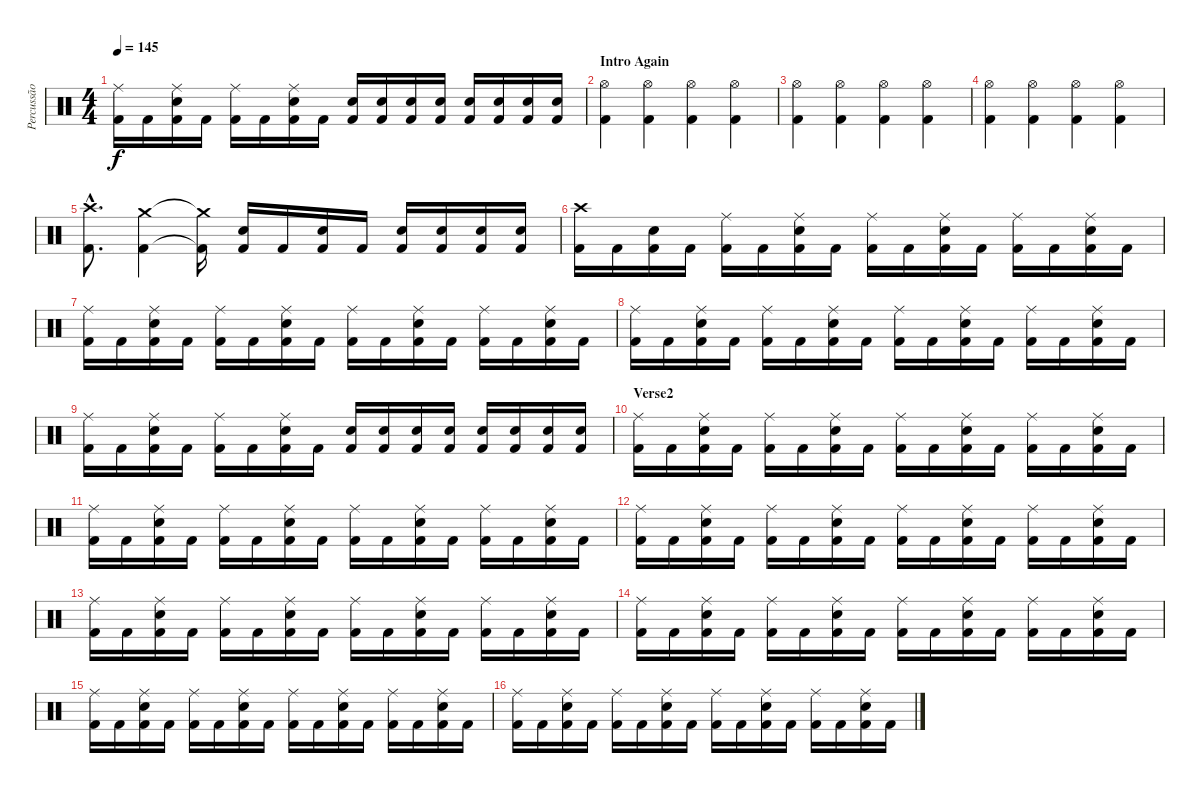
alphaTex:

\track ("Percussão" "Percussão") {instrument percussion}
\staff {score}
\articulation defaults
\ts (4 4)
\tempo 145
\clef neutral
\ks c
("Kick (hit) 2" "Ride (middle)").16{dy f} "Kick (hit) 2".16 ("Kick (hit) 2" "Snare (hit) 2" "Ride (middle)").16 "Kick (hit) 2".16 ("Kick (hit) 2" "Ride (middle)").16 "Kick (hit) 2".16 ("Kick (hit) 2" "Snare (hit) 2" "Ride (middle)").16 "Kick (hit) 2".16 ("Kick (hit) 2" "Snare (hit) 2").16 ("Kick (hit) 2" "Snare (hit) 2").16 ("Kick (hit) 2" "Snare (hit) 2").16 ("Kick (hit) 2" "Snare (hit) 2").16 ("Kick (hit) 2" "Snare (hit) 2").16 ("Kick (hit) 2" "Snare (hit) 2").16 ("Kick (hit) 2" "Snare (hit) 2").16 ("Kick (hit) 2" "Snare (hit) 2").16 |
\section ("" "Intro Again")
("Kick (hit) 2" "Hi-Hat (open)").4 ("Kick (hit) 2" "Hi-Hat (open)").4 ("Kick (hit) 2" "Hi-Hat (open)").4 ("Kick (hit) 2" "Hi-Hat (open)").4 |
("Kick (hit) 2" "Hi-Hat (open)").4 ("Kick (hit) 2" "Hi-Hat (open)").4 ("Kick (hit) 2" "Hi-Hat (open)").4 ("Kick (hit) 2" "Hi-Hat (open)").4 |
("Kick (hit) 2" "Hi-Hat (open)").4 ("Kick (hit) 2" "Hi-Hat (open)").4 ("Kick (hit) 2" "Hi-Hat (open)").4 ("Kick (hit) 2" "Hi-Hat (open)").4 |
("Kick (hit) 2"{hac} "Crash high (hit)"{hac}).8{d} ("Kick (hit) 2" "Crash medium (hit)").4 ("Kick (hit) 2"{t} "Crash medium (hit)"{t}).16 ("Kick (hit) 2" "Snare (hit) 2").16 "Kick (hit) 2".16 ("Kick (hit) 2" "Snare (hit) 2").16 "Kick (hit) 2".16 ("Kick (hit) 2" "Snare (hit) 2").16 ("Kick (hit) 2" "Snare (hit) 2").16 ("Kick (hit) 2" "Snare (hit) 2").16 ("Kick (hit) 2" "Snare (hit) 2").16 |
("Kick (hit) 2" "Crash high (hit)").16 "Kick (hit) 2".16 ("Kick (hit) 2" "Snare (hit) 2").16 "Kick (hit) 2".16 ("Kick (hit) 2" "Ride (middle)").16 "Kick (hit) 2".16 ("Kick (hit) 2" "Snare (hit) 2" "Ride (middle)").16 "Kick (hit) 2".16 ("Kick (hit) 2" "Ride (middle)").16 "Kick (hit) 2".16 ("Kick (hit) 2" "Snare (hit) 2" "Ride (middle)").16 "Kick (hit) 2".16 ("Kick (hit) 2" "Ride (middle)").16 "Kick (hit) 2".16 ("Kick (hit) 2" "Snare (hit) 2" "Ride (middle)").16 "Kick (hit) 2".16 |
("Kick (hit) 2" "Ride (middle)").16 "Kick (hit) 2".16 ("Kick (hit) 2" "Snare (hit) 2" "Ride (middle)").16 "Kick (hit) 2".16 ("Kick (hit) 2" "Ride (middle)").16 "Kick (hit) 2".16 ("Kick (hit) 2" "Snare (hit) 2" "Ride (middle)").16 "Kick (hit) 2".16 ("Kick (hit) 2" "Ride (middle)").16 "Kick (hit) 2".16 ("Kick (hit) 2" "Snare (hit) 2" "Ride (middle)").16 "Kick (hit) 2".16 ("Kick (hit) 2" "Ride (middle)").16 "Kick (hit) 2".16 ("Kick (hit) 2" "Snare (hit) 2" "Ride (middle)").16 "Kick (hit) 2".16 |
("Kick (hit) 2" "Ride (middle)").16 "Kick (hit) 2".16 ("Kick (hit) 2" "Snare (hit) 2" "Ride (middle)").16 "Kick (hit) 2".16 ("Kick (hit) 2" "Ride (middle)").16 "Kick (hit) 2".16 ("Kick (hit) 2" "Snare (hit) 2" "Ride (middle)").16 "Kick (hit) 2".16 ("Kick (hit) 2" "Ride (middle)").16 "Kick (hit) 2".16 ("Kick (hit) 2" "Snare (hit) 2" "Ride (middle)").16 "Kick (hit) 2".16 ("Kick (hit) 2" "Ride (middle)").16 "Kick (hit) 2".16 ("Kick (hit) 2" "Snare (hit) 2" "Ride (middle)").16 "Kick (hit) 2".16 |
("Kick (hit) 2" "Ride (middle)").16 "Kick (hit) 2".16 ("Kick (hit) 2" "Snare (hit) 2" "Ride (middle)").16 "Kick (hit) 2".16 ("Kick (hit) 2" "Ride (middle)").16 "Kick (hit) 2".16 ("Kick (hit) 2" "Snare (hit) 2" "Ride (middle)").16 "Kick (hit) 2".16 ("Kick (hit) 2" "Snare (hit) 2").16 ("Kick (hit) 2" "Snare (hit) 2").16 ("Kick (hit) 2" "Snare (hit) 2").16 ("Kick (hit) 2" "Snare (hit) 2").16 ("Kick (hit) 2" "Snare (hit) 2").16 ("Kick (hit) 2" "Snare (hit) 2").16 ("Kick (hit) 2" "Snare (hit) 2").16 ("Kick (hit) 2" "Snare (hit) 2").16 |
\section ("" "Verse2")
("Kick (hit) 2" "Ride (middle)").16 "Kick (hit) 2".16 ("Kick (hit) 2" "Snare (hit) 2" "Ride (middle)").16 "Kick (hit) 2".16 ("Kick (hit) 2" "Ride (middle)").16 "Kick (hit) 2".16 ("Kick (hit) 2" "Snare (hit) 2" "Ride (middle)").16 "Kick (hit) 2".16 ("Kick (hit) 2" "Ride (middle)").16 "Kick (hit) 2".16 ("Kick (hit) 2" "Snare (hit) 2" "Ride (middle)").16 "Kick (hit) 2".16 ("Kick (hit) 2" "Ride (middle)").16 "Kick (hit) 2".16 ("Kick (hit) 2" "Snare (hit) 2" "Ride (middle)").16 "Kick (hit) 2".16 |
("Kick (hit) 2" "Ride (middle)").16 "Kick (hit) 2".16 ("Kick (hit) 2" "Snare (hit) 2" "Ride (middle)").16 "Kick (hit) 2".16 ("Kick (hit) 2" "Ride (middle)").16 "Kick (hit) 2".16 ("Kick (hit) 2" "Snare (hit) 2" "Ride (middle)").16 "Kick (hit) 2".16 ("Kick (hit) 2" "Ride (middle)").16 "Kick (hit) 2".16 ("Kick (hit) 2" "Snare (hit) 2" "Ride (middle)").16 "Kick (hit) 2".16 ("Kick (hit) 2" "Ride (middle)").16 "Kick (hit) 2".16 ("Kick (hit) 2" "Snare (hit) 2" "Ride (middle)").16 "Kick (hit) 2".16 |
("Kick (hit) 2" "Ride (middle)").16 "Kick (hit) 2".16 ("Kick (hit) 2" "Snare (hit) 2" "Ride (middle)").16 "Kick (hit) 2".16 ("Kick (hit) 2" "Ride (middle)").16 "Kick (hit) 2".16 ("Kick (hit) 2" "Snare (hit) 2" "Ride (middle)").16 "Kick (hit) 2".16 ("Kick (hit) 2" "Ride (middle)").16 "Kick (hit) 2".16 ("Kick (hit) 2" "Snare (hit) 2" "Ride (middle)").16 "Kick (hit) 2".16 ("Kick (hit) 2" "Ride (middle)").16 "Kick (hit) 2".16 ("Kick (hit) 2" "Snare (hit) 2" "Ride (middle)").16 "Kick (hit) 2".16 |
("Kick (hit) 2" "Ride (middle)").16 "Kick (hit) 2".16 ("Kick (hit) 2" "Snare (hit) 2" "Ride (middle)").16 "Kick (hit) 2".16 ("Kick (hit) 2" "Ride (middle)").16 "Kick (hit) 2".16 ("Kick (hit) 2" "Snare (hit) 2" "Ride (middle)").16 "Kick (hit) 2".16 ("Kick (hit) 2" "Ride (middle)").16 "Kick (hit) 2".16 ("Kick (hit) 2" "Snare (hit) 2" "Ride (middle)").16 "Kick (hit) 2".16 ("Kick (hit) 2" "Ride (middle)").16 "Kick (hit) 2".16 ("Kick (hit) 2" "Snare (hit) 2" "Ride (middle)").16 "Kick (hit) 2".16 |
("Kick (hit) 2" "Ride (middle)").16 "Kick (hit) 2".16 ("Kick (hit) 2" "Snare (hit) 2" "Ride (middle)").16 "Kick (hit) 2".16 ("Kick (hit) 2" "Ride (middle)").16 "Kick (hit) 2".16 ("Kick (hit) 2" "Snare (hit) 2" "Ride (middle)").16 "Kick (hit) 2".16 ("Kick (hit) 2" "Ride (middle)").16 "Kick (hit) 2".16 ("Kick (hit) 2" "Snare (hit) 2" "Ride (middle)").16 "Kick (hit) 2".16 ("Kick (hit) 2" "Ride (middle)").16 "Kick (hit) 2".16 ("Kick (hit) 2" "Snare (hit) 2" "Ride (middle)").16 "Kick (hit) 2".16 |
("Kick (hit) 2" "Ride (middle)").16 "Kick (hit) 2".16 ("Kick (hit) 2" "Snare (hit) 2" "Ride (middle)").16 "Kick (hit) 2".16 ("Kick (hit) 2" "Ride (middle)").16 "Kick (hit) 2".16 ("Kick (hit) 2" "Snare (hit) 2" "Ride (middle)").16 "Kick (hit) 2".16 ("Kick (hit) 2" "Ride (middle)").16 "Kick (hit) 2".16 ("Kick (hit) 2" "Snare (hit) 2" "Ride (middle)").16 "Kick (hit) 2".16 ("Kick (hit) 2" "Ride (middle)").16 "Kick (hit) 2".16 ("Kick (hit) 2" "Snare (hit) 2" "Ride (middle)").16 "Kick (hit) 2".16 |
("Kick (hit) 2" "Ride (middle)").16 "Kick (hit) 2".16 ("Kick (hit) 2" "Snare (hit) 2" "Ride (middle)").16 "Kick (hit) 2".16 ("Kick (hit) 2" "Ride (middle)").16 "Kick (hit) 2".16 ("Kick (hit) 2" "Snare (hit) 2" "Ride (middle)").16 "Kick (hit) 2".16 ("Kick (hit) 2" "Ride (middle)").16 "Kick (hit) 2".16 ("Kick (hit) 2" "Snare (hit) 2" "Ride (middle)").16 "Kick (hit) 2".16 ("Kick (hit) 2" "Ride (middle)").16 "Kick (hit) 2".16 ("Kick (hit) 2" "Snare (hit) 2" "Ride (middle)").16 "Kick (hit) 2".16
